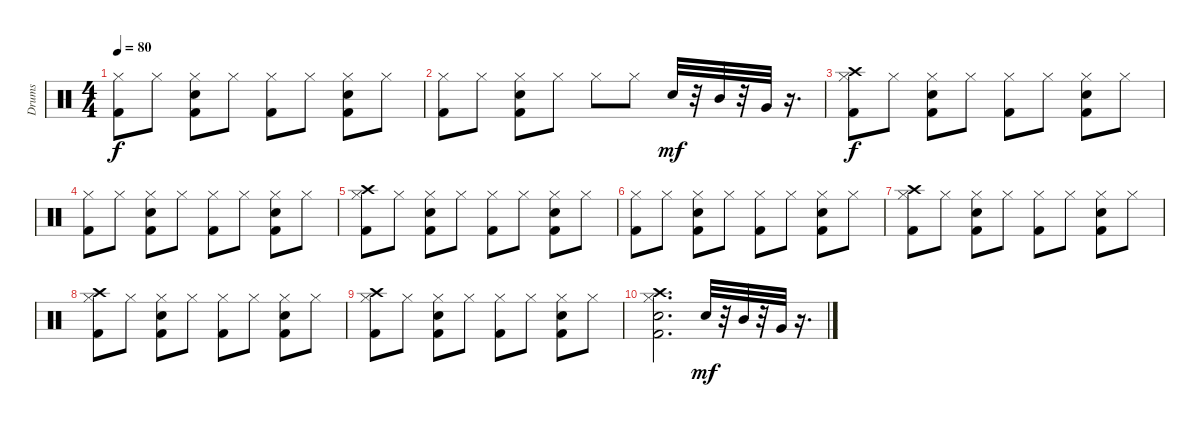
\track ("Drums" "Drums") {instrument percussion}
\staff {score}
\articulation defaults
\ts (4 4)
\tempo 80
\clef neutral
\ks c
("Hi-Hat (closed)" "Kick (hit) 2").8{dy f} "Hi-Hat (closed)".8 ("Hi-Hat (closed)" "Electric Snare (hit)" "Kick (hit) 2").8 "Hi-Hat (closed)".8 ("Hi-Hat (closed)" "Kick (hit) 2").8 "Hi-Hat (closed)".8 ("Hi-Hat (closed)" "Electric Snare (hit)" "Kick (hit) 2").8 "Hi-Hat (closed)".8 |
("Hi-Hat (closed)" "Kick (hit) 2").8 "Hi-Hat (closed)".8 ("Hi-Hat (closed)" "Electric Snare (hit)" "Kick (hit) 2").8 "Hi-Hat (closed)".8 "Hi-Hat (closed)".8 "Hi-Hat (closed)".8 "Snare (hit) 2".32{dy mf} r.32 "Mid Tom (hit)".32 r.32 "Very Low Tom (hit)".32 r.16{d} |
("Hi-Hat (closed)" "Kick (hit) 2" "Crash high (hit)").8{dy f} "Hi-Hat (closed)".8 ("Hi-Hat (closed)" "Electric Snare (hit)" "Kick (hit) 2").8 "Hi-Hat (closed)".8 ("Hi-Hat (closed)" "Kick (hit) 2").8 "Hi-Hat (closed)".8 ("Hi-Hat (closed)" "Electric Snare (hit)" "Kick (hit) 2").8 "Hi-Hat (closed)".8 |
("Hi-Hat (closed)" "Kick (hit) 2").8 "Hi-Hat (closed)".8 ("Hi-Hat (closed)" "Electric Snare (hit)" "Kick (hit) 2").8 "Hi-Hat (closed)".8 ("Hi-Hat (closed)" "Kick (hit) 2").8 "Hi-Hat (closed)".8 ("Hi-Hat (closed)" "Electric Snare (hit)" "Kick (hit) 2").8 "Hi-Hat (closed)".8 |
("Hi-Hat (closed)" "Kick (hit) 2" "Crash high (hit)").8 "Hi-Hat (closed)".8 ("Hi-Hat (closed)" "Electric Snare (hit)" "Kick (hit) 2").8 "Hi-Hat (closed)".8 ("Hi-Hat (closed)" "Kick (hit) 2").8 "Hi-Hat (closed)".8 ("Hi-Hat (closed)" "Electric Snare (hit)" "Kick (hit) 2").8 "Hi-Hat (closed)".8 |
("Hi-Hat (closed)" "Kick (hit) 2").8 "Hi-Hat (closed)".8 ("Hi-Hat (closed)" "Electric Snare (hit)" "Kick (hit) 2").8 "Hi-Hat (closed)".8 ("Hi-Hat (closed)" "Kick (hit) 2").8 "Hi-Hat (closed)".8 ("Hi-Hat (closed)" "Electric Snare (hit)" "Kick (hit) 2").8 "Hi-Hat (closed)".8 |
("Hi-Hat (closed)" "Kick (hit) 2" "Crash high (hit)").8 "Hi-Hat (closed)".8 ("Hi-Hat (closed)" "Electric Snare (hit)" "Kick (hit) 2").8 "Hi-Hat (closed)".8 ("Hi-Hat (closed)" "Kick (hit) 2").8 "Hi-Hat (closed)".8 ("Hi-Hat (closed)" "Electric Snare (hit)" "Kick (hit) 2").8 "Hi-Hat (closed)".8 |
("Hi-Hat (closed)" "Kick (hit) 2" "Crash high (hit)").8 "Hi-Hat (closed)".8 ("Hi-Hat (closed)" "Electric Snare (hit)" "Kick (hit) 2").8 "Hi-Hat (closed)".8 ("Hi-Hat (closed)" "Kick (hit) 2").8 "Hi-Hat (closed)".8 ("Hi-Hat (closed)" "Electric Snare (hit)" "Kick (hit) 2").8 "Hi-Hat (closed)".8 |
("Hi-Hat (closed)" "Kick (hit) 2" "Crash high (hit)").8 "Hi-Hat (closed)".8 ("Hi-Hat (closed)" "Electric Snare (hit)" "Kick (hit) 2").8 "Hi-Hat (closed)".8 ("Hi-Hat (closed)" "Kick (hit) 2").8 "Hi-Hat (closed)".8 ("Hi-Hat (closed)" "Electric Snare (hit)" "Kick (hit) 2").8 "Hi-Hat (closed)".8 |
("Hi-Hat (closed)" "Electric Snare (hit)" "Kick (hit) 2" "Crash high (hit)").2{d} "Snare (hit) 2".32{dy mf} r.32 "Mid Tom (hit)".32 r.32 "Very Low Tom (hit)".32 r.16{d}
